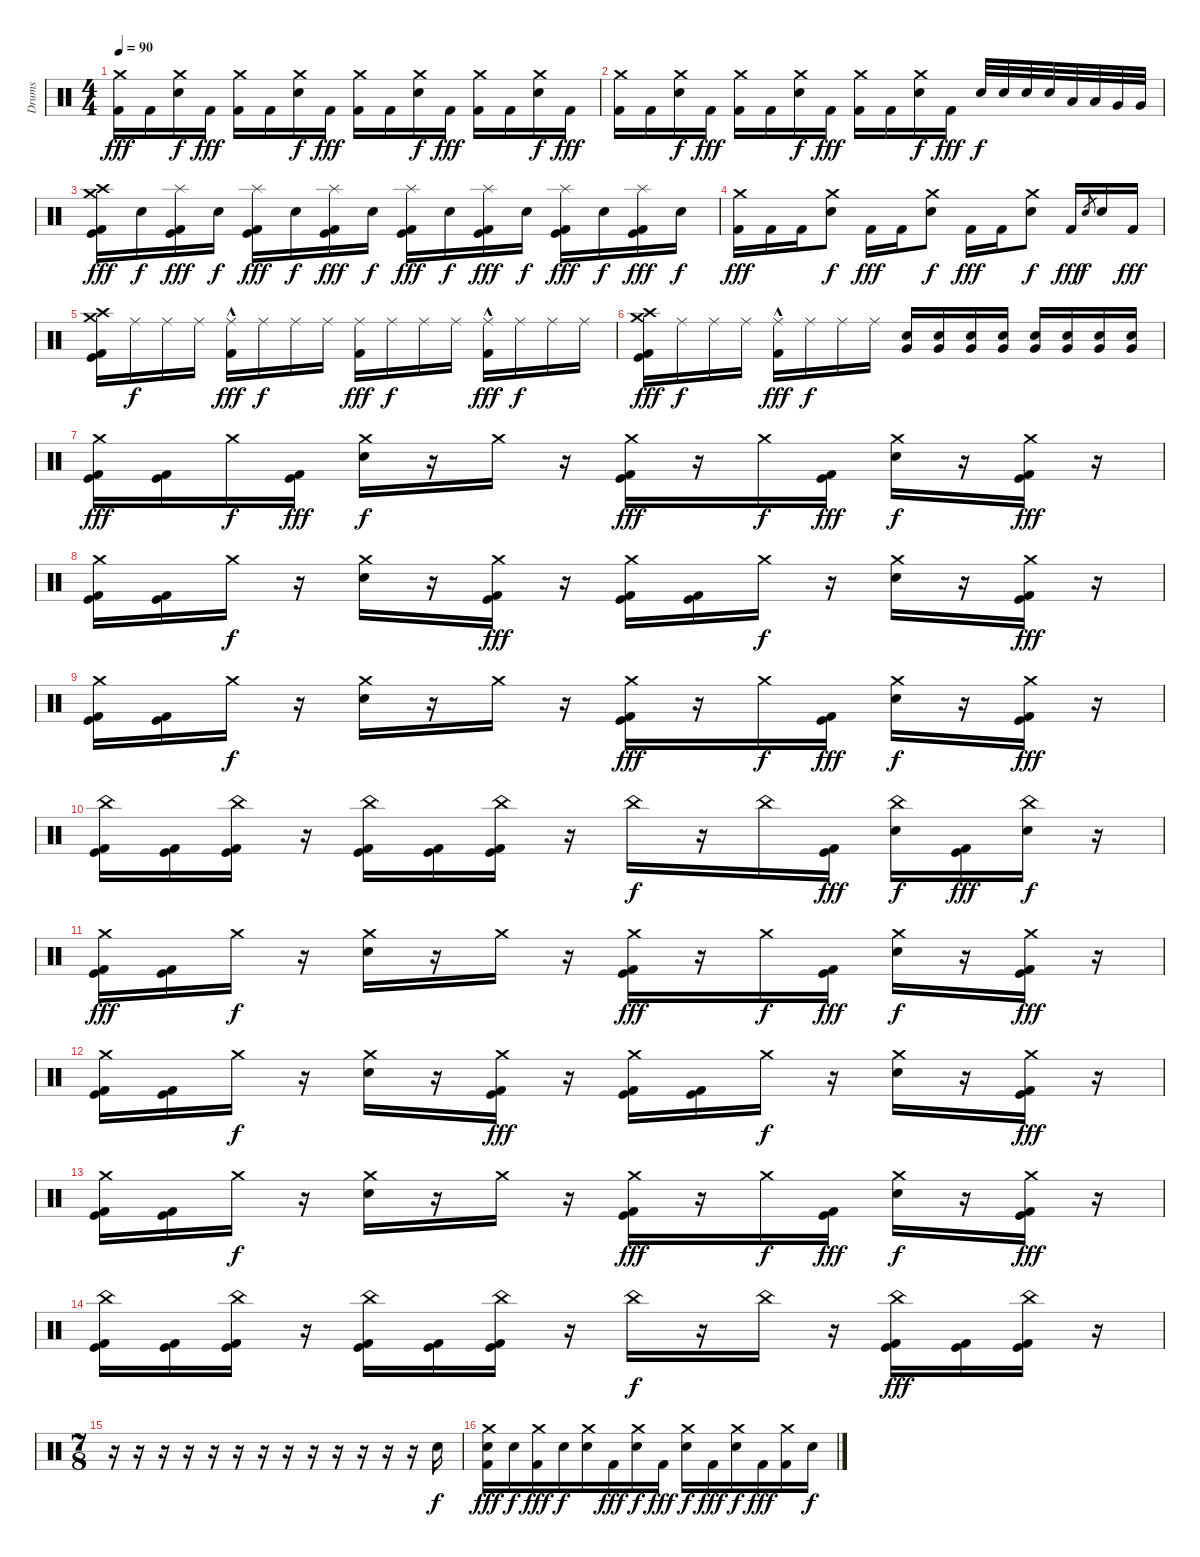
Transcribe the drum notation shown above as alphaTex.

\track ("Drums" "Drums") {instrument percussion}
\staff {score}
\articulation defaults
\ts (4 4)
\tempo 90
\clef neutral
\ks c
("Crash medium (hit)" "Kick (hit) 2").16{dy fff} "Kick (hit) 2".16 ("Crash medium (hit)" "Electric Snare (hit)").16{dy f} "Kick (hit) 2".16{dy fff} ("Crash medium (hit)" "Kick (hit) 2").16 "Kick (hit) 2".16 ("Crash medium (hit)" "Electric Snare (hit)").16{dy f} "Kick (hit) 2".16{dy fff} ("Crash medium (hit)" "Kick (hit) 2").16 "Kick (hit) 2".16 ("Crash medium (hit)" "Electric Snare (hit)").16{dy f} "Kick (hit) 2".16{dy fff} ("Crash medium (hit)" "Kick (hit) 2").16 "Kick (hit) 2".16 ("Crash medium (hit)" "Electric Snare (hit)").16{dy f} "Kick (hit) 2".16{dy fff} |
("Crash medium (hit)" "Kick (hit) 2").16 "Kick (hit) 2".16 ("Crash medium (hit)" "Electric Snare (hit)").16{dy f} "Kick (hit) 2".16{dy fff} ("Crash medium (hit)" "Kick (hit) 2").16 "Kick (hit) 2".16 ("Crash medium (hit)" "Electric Snare (hit)").16{dy f} "Kick (hit) 2".16{dy fff} ("Crash medium (hit)" "Kick (hit) 2").16 "Kick (hit) 2".16 ("Crash medium (hit)" "Electric Snare (hit)").16{dy f} "Kick (hit) 2".16{dy fff} "Electric Snare (hit)".32{dy f} "Electric Snare (hit)".32 "Electric Snare (hit)".32 "Electric Snare (hit)".32 "Low Tom (hit)".32 "Low Tom (hit)".32 "Very Low Tom (hit)".32 "Very Low Tom (hit)".32 |
("Crash high (hit)" "Crash medium (hit)" "Kick (hit)" "Kick (hit) 2").16{dy fff} "Electric Snare (hit)".16{dy f} ("Splash (hit)" "Kick (hit)" "Kick (hit) 2").16{dy fff} "Electric Snare (hit)".16{dy f} ("Splash (hit)" "Kick (hit)" "Kick (hit) 2").16{dy fff} "Electric Snare (hit)".16{dy f} ("Splash (hit)" "Kick (hit)" "Kick (hit) 2").16{dy fff} "Electric Snare (hit)".16{dy f} ("Splash (hit)" "Kick (hit)" "Kick (hit) 2").16{dy fff} "Electric Snare (hit)".16{dy f} ("Splash (hit)" "Kick (hit)" "Kick (hit) 2").16{dy fff} "Electric Snare (hit)".16{dy f} ("Splash (hit)" "Kick (hit)" "Kick (hit) 2").16{dy fff} "Electric Snare (hit)".16{dy f} ("Splash (hit)" "Kick (hit)" "Kick (hit) 2").16{dy fff} "Electric Snare (hit)".16{dy f} |
("Crash medium (hit)" "Kick (hit) 2").16{dy fff} "Kick (hit) 2".16 "Kick (hit) 2".16 ("Crash medium (hit)" "Electric Snare (hit)").8{dy f} "Kick (hit) 2".16{dy fff} "Kick (hit) 2".16 ("Crash medium (hit)" "Electric Snare (hit)").8{dy f} "Kick (hit) 2".16{dy fff} "Kick (hit) 2".16 ("Crash medium (hit)" "Electric Snare (hit)").8{dy f} "Kick (hit) 2".16{dy fff} "Snare (hit) 2".8{gr dy f} "Electric Snare (hit)".16 "Kick (hit) 2".16{dy fff} |
("Crash medium (hit)" "Crash high (hit)" "Kick (hit) 2" "Kick (hit)").16 "Ride (middle)".16{dy f} "Ride (middle)".16 "Ride (middle)".16 ("Ride (middle)"{hac} "Kick (hit) 2").16{dy fff} "Ride (middle)".16{dy f} "Ride (middle)".16 "Ride (middle)".16 ("Ride (middle)" "Kick (hit) 2").16{dy fff} "Ride (middle)".16{dy f} "Ride (middle)".16 "Ride (middle)".16 ("Ride (middle)"{hac} "Kick (hit) 2").16{dy fff} "Ride (middle)".16{dy f} "Ride (middle)".16 "Ride (middle)".16 |
("Crash medium (hit)" "Crash high (hit)" "Kick (hit) 2" "Kick (hit)").16{dy fff} "Ride (middle)".16{dy f} "Ride (middle)".16 "Ride (middle)".16 ("Ride (middle)"{hac} "Kick (hit) 2").16{dy fff} "Ride (middle)".16{dy f} "Ride (middle)".16 "Ride (middle)".16 ("Very Low Tom (hit)" "Electric Snare (hit)").16 ("Very Low Tom (hit)" "Electric Snare (hit)").16 ("Very Low Tom (hit)" "Electric Snare (hit)").16 ("Very Low Tom (hit)" "Electric Snare (hit)").16 ("Very Low Tom (hit)" "Electric Snare (hit)").16 ("Very Low Tom (hit)" "Electric Snare (hit)").16 ("Very Low Tom (hit)" "Electric Snare (hit)").16 ("Very Low Tom (hit)" "Electric Snare (hit)").16 |
("Crash medium (hit)" "Kick (hit)" "Kick (hit) 2").16{dy fff} ("Kick (hit)" "Kick (hit) 2").16 "Crash medium (hit)".16{dy f} ("Kick (hit)" "Kick (hit) 2").16{dy fff} ("Crash medium (hit)" "Electric Snare (hit)").16{dy f} r.16 "Crash medium (hit)".16 r.16 ("Crash medium (hit)" "Kick (hit)" "Kick (hit) 2").16{dy fff} r.16 "Crash medium (hit)".16{dy f} ("Kick (hit)" "Kick (hit) 2").16{dy fff} ("Crash medium (hit)" "Electric Snare (hit)").16{dy f} r.16 ("Crash medium (hit)" "Kick (hit)" "Kick (hit) 2").16{dy fff} r.16 |
("Crash medium (hit)" "Kick (hit)" "Kick (hit) 2").16 ("Kick (hit)" "Kick (hit) 2").16 "Crash medium (hit)".16{dy f} r.16 ("Crash medium (hit)" "Electric Snare (hit)").16 r.16 ("Crash medium (hit)" "Kick (hit)" "Kick (hit) 2").16{dy fff} r.16 ("Crash medium (hit)" "Kick (hit)" "Kick (hit) 2").16 ("Kick (hit)" "Kick (hit) 2").16 "Crash medium (hit)".16{dy f} r.16 ("Crash medium (hit)" "Electric Snare (hit)").16 r.16 ("Crash medium (hit)" "Kick (hit)" "Kick (hit) 2").16{dy fff} r.16 |
("Crash medium (hit)" "Kick (hit)" "Kick (hit) 2").16 ("Kick (hit)" "Kick (hit) 2").16 "Crash medium (hit)".16{dy f} r.16 ("Crash medium (hit)" "Electric Snare (hit)").16 r.16 "Crash medium (hit)".16 r.16 ("Crash medium (hit)" "Kick (hit)" "Kick (hit) 2").16{dy fff} r.16 "Crash medium (hit)".16{dy f} ("Kick (hit)" "Kick (hit) 2").16{dy fff} ("Crash medium (hit)" "Electric Snare (hit)").16{dy f} r.16 ("Crash medium (hit)" "Kick (hit)" "Kick (hit) 2").16{dy fff} r.16 |
("China (hit)" "Kick (hit)" "Kick (hit) 2").16 ("Kick (hit)" "Kick (hit) 2").16 ("China (hit)" "Kick (hit)" "Kick (hit) 2").16 r.16 ("China (hit)" "Kick (hit)" "Kick (hit) 2").16 ("Kick (hit)" "Kick (hit) 2").16 ("China (hit)" "Kick (hit)" "Kick (hit) 2").16 r.16 "China (hit)".16{dy f} r.16 "China (hit)".16 ("Kick (hit)" "Kick (hit) 2").16{dy fff} ("China (hit)" "Electric Snare (hit)").16{dy f} ("Kick (hit)" "Kick (hit) 2").16{dy fff} ("China (hit)" "Electric Snare (hit)").16{dy f} r.16 |
("Crash medium (hit)" "Kick (hit)" "Kick (hit) 2").16{dy fff} ("Kick (hit)" "Kick (hit) 2").16 "Crash medium (hit)".16{dy f} r.16 ("Crash medium (hit)" "Electric Snare (hit)").16 r.16 "Crash medium (hit)".16 r.16 ("Crash medium (hit)" "Kick (hit)" "Kick (hit) 2").16{dy fff} r.16 "Crash medium (hit)".16{dy f} ("Kick (hit)" "Kick (hit) 2").16{dy fff} ("Crash medium (hit)" "Electric Snare (hit)").16{dy f} r.16 ("Crash medium (hit)" "Kick (hit)" "Kick (hit) 2").16{dy fff} r.16 |
("Crash medium (hit)" "Kick (hit)" "Kick (hit) 2").16 ("Kick (hit)" "Kick (hit) 2").16 "Crash medium (hit)".16{dy f} r.16 ("Crash medium (hit)" "Electric Snare (hit)").16 r.16 ("Crash medium (hit)" "Kick (hit)" "Kick (hit) 2").16{dy fff} r.16 ("Crash medium (hit)" "Kick (hit)" "Kick (hit) 2").16 ("Kick (hit)" "Kick (hit) 2").16 "Crash medium (hit)".16{dy f} r.16 ("Crash medium (hit)" "Electric Snare (hit)").16 r.16 ("Crash medium (hit)" "Kick (hit)" "Kick (hit) 2").16{dy fff} r.16 |
("Crash medium (hit)" "Kick (hit)" "Kick (hit) 2").16 ("Kick (hit)" "Kick (hit) 2").16 "Crash medium (hit)".16{dy f} r.16 ("Crash medium (hit)" "Electric Snare (hit)").16 r.16 "Crash medium (hit)".16 r.16 ("Crash medium (hit)" "Kick (hit)" "Kick (hit) 2").16{dy fff} r.16 "Crash medium (hit)".16{dy f} ("Kick (hit)" "Kick (hit) 2").16{dy fff} ("Crash medium (hit)" "Electric Snare (hit)").16{dy f} r.16 ("Crash medium (hit)" "Kick (hit)" "Kick (hit) 2").16{dy fff} r.16 |
("China (hit)" "Kick (hit)" "Kick (hit) 2").16 ("Kick (hit)" "Kick (hit) 2").16 ("China (hit)" "Kick (hit)" "Kick (hit) 2").16 r.16 ("China (hit)" "Kick (hit)" "Kick (hit) 2").16 ("Kick (hit)" "Kick (hit) 2").16 ("China (hit)" "Kick (hit)" "Kick (hit) 2").16 r.16 "China (hit)".16{dy f} r.16 "China (hit)".16 r.16 ("China (hit)" "Kick (hit)" "Kick (hit) 2").16{dy fff} ("Kick (hit)" "Kick (hit) 2").16 ("China (hit)" "Kick (hit)" "Kick (hit) 2").16 r.16 |
\ts (7 8)
r.16 r.16 r.16 r.16 r.16 r.16 r.16 r.16 r.16 r.16 r.16 r.16 r.16 "Electric Snare (hit)".16{dy f} |
("Crash medium (hit)" "Electric Snare (hit)" "Kick (hit) 2").16{dy fff} "Electric Snare (hit)".16{dy f} ("Crash medium (hit)" "Kick (hit) 2").16{dy fff} "Electric Snare (hit)".16{dy f} ("Crash medium (hit)" "Electric Snare (hit)").16 "Kick (hit) 2".16{dy fff} ("Crash medium (hit)" "Electric Snare (hit)").16{dy f} "Kick (hit) 2".16{dy fff} ("Crash medium (hit)" "Electric Snare (hit)").16{dy f} "Kick (hit) 2".16{dy fff} ("Crash medium (hit)" "Electric Snare (hit)").16{dy f} "Kick (hit) 2".16{dy fff} ("Crash medium (hit)" "Kick (hit) 2").16 "Electric Snare (hit)".16{dy f}
